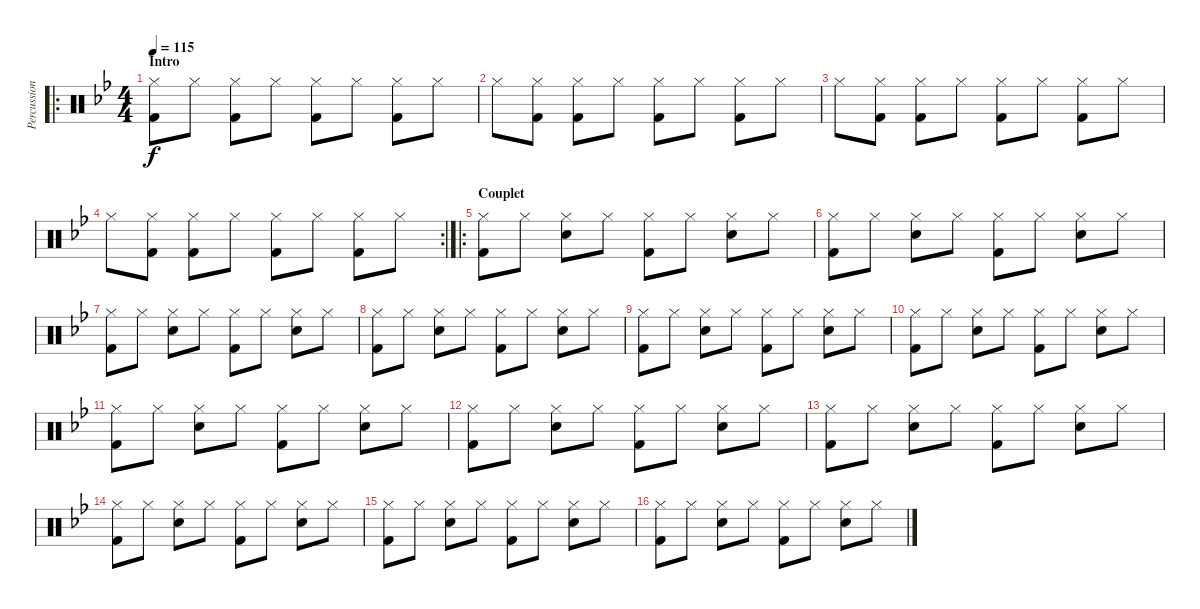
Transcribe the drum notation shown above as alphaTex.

\track ("Percussions" "Percussion") {instrument percussion}
\staff {score}
\articulation defaults
\ro
\ts (4 4)
\section ("" "Intro")
\tempo 115
\clef neutral
\ks bb
("Hi-Hat (closed)" "Kick (hit) 2").8{dy f} "Hi-Hat (closed)".8 ("Hi-Hat (closed)" "Kick (hit) 2").8 "Hi-Hat (closed)".8 ("Hi-Hat (closed)" "Kick (hit) 2").8 "Hi-Hat (closed)".8 ("Hi-Hat (closed)" "Kick (hit) 2").8 "Hi-Hat (closed)".8 |
"Hi-Hat (closed)".8 ("Hi-Hat (closed)" "Kick (hit) 2").8 ("Hi-Hat (closed)" "Kick (hit) 2").8 "Hi-Hat (closed)".8 ("Hi-Hat (closed)" "Kick (hit) 2").8 "Hi-Hat (closed)".8 ("Hi-Hat (closed)" "Kick (hit) 2").8 "Hi-Hat (closed)".8 |
"Hi-Hat (closed)".8 ("Hi-Hat (closed)" "Kick (hit) 2").8 ("Hi-Hat (closed)" "Kick (hit) 2").8 "Hi-Hat (closed)".8 ("Hi-Hat (closed)" "Kick (hit) 2").8 "Hi-Hat (closed)".8 ("Hi-Hat (closed)" "Kick (hit) 2").8 "Hi-Hat (closed)".8 |
\rc 2 "Hi-Hat (closed)".8
("Hi-Hat (closed)" "Kick (hit) 2").8 ("Hi-Hat (closed)" "Kick (hit) 2").8 "Hi-Hat (closed)".8 ("Hi-Hat (closed)" "Kick (hit) 2").8 "Hi-Hat (closed)".8 ("Hi-Hat (closed)" "Kick (hit) 2").8 "Hi-Hat (closed)".8 |
\ro
\section ("" "Couplet")
("Hi-Hat (closed)" "Kick (hit) 2").8 "Hi-Hat (closed)".8 ("Hi-Hat (closed)" "Electric Snare (hit)").8 "Hi-Hat (closed)".8 ("Hi-Hat (closed)" "Kick (hit) 2").8 "Hi-Hat (closed)".8 ("Hi-Hat (closed)" "Electric Snare (hit)").8 "Hi-Hat (closed)".8 |
("Hi-Hat (closed)" "Kick (hit) 2").8 "Hi-Hat (closed)".8 ("Hi-Hat (closed)" "Electric Snare (hit)").8 "Hi-Hat (closed)".8 ("Hi-Hat (closed)" "Kick (hit) 2").8 "Hi-Hat (closed)".8 ("Hi-Hat (closed)" "Electric Snare (hit)").8 "Hi-Hat (closed)".8 |
("Hi-Hat (closed)" "Kick (hit) 2").8 "Hi-Hat (closed)".8 ("Hi-Hat (closed)" "Electric Snare (hit)").8 "Hi-Hat (closed)".8 ("Hi-Hat (closed)" "Kick (hit) 2").8 "Hi-Hat (closed)".8 ("Hi-Hat (closed)" "Electric Snare (hit)").8 "Hi-Hat (closed)".8 |
("Hi-Hat (closed)" "Kick (hit) 2").8 "Hi-Hat (closed)".8 ("Hi-Hat (closed)" "Electric Snare (hit)").8 "Hi-Hat (closed)".8 ("Hi-Hat (closed)" "Kick (hit) 2").8 "Hi-Hat (closed)".8 ("Hi-Hat (closed)" "Electric Snare (hit)").8 "Hi-Hat (closed)".8 |
("Hi-Hat (closed)" "Kick (hit) 2").8 "Hi-Hat (closed)".8 ("Hi-Hat (closed)" "Electric Snare (hit)").8 "Hi-Hat (closed)".8 ("Hi-Hat (closed)" "Kick (hit) 2").8 "Hi-Hat (closed)".8 ("Hi-Hat (closed)" "Electric Snare (hit)").8 "Hi-Hat (closed)".8 |
("Hi-Hat (closed)" "Kick (hit) 2").8 "Hi-Hat (closed)".8 ("Hi-Hat (closed)" "Electric Snare (hit)").8 "Hi-Hat (closed)".8 ("Hi-Hat (closed)" "Kick (hit) 2").8 "Hi-Hat (closed)".8 ("Hi-Hat (closed)" "Electric Snare (hit)").8 "Hi-Hat (closed)".8 |
("Hi-Hat (closed)" "Kick (hit) 2").8 "Hi-Hat (closed)".8 ("Hi-Hat (closed)" "Electric Snare (hit)").8 "Hi-Hat (closed)".8 ("Hi-Hat (closed)" "Kick (hit) 2").8 "Hi-Hat (closed)".8 ("Hi-Hat (closed)" "Electric Snare (hit)").8 "Hi-Hat (closed)".8 |
("Hi-Hat (closed)" "Kick (hit) 2").8 "Hi-Hat (closed)".8 ("Hi-Hat (closed)" "Electric Snare (hit)").8 "Hi-Hat (closed)".8 ("Hi-Hat (closed)" "Kick (hit) 2").8 "Hi-Hat (closed)".8 ("Hi-Hat (closed)" "Electric Snare (hit)").8 "Hi-Hat (closed)".8 |
("Hi-Hat (closed)" "Kick (hit) 2").8 "Hi-Hat (closed)".8 ("Hi-Hat (closed)" "Electric Snare (hit)").8 "Hi-Hat (closed)".8 ("Hi-Hat (closed)" "Kick (hit) 2").8 "Hi-Hat (closed)".8 ("Hi-Hat (closed)" "Electric Snare (hit)").8 "Hi-Hat (closed)".8 |
("Hi-Hat (closed)" "Kick (hit) 2").8 "Hi-Hat (closed)".8 ("Hi-Hat (closed)" "Electric Snare (hit)").8 "Hi-Hat (closed)".8 ("Hi-Hat (closed)" "Kick (hit) 2").8 "Hi-Hat (closed)".8 ("Hi-Hat (closed)" "Electric Snare (hit)").8 "Hi-Hat (closed)".8 |
("Hi-Hat (closed)" "Kick (hit) 2").8 "Hi-Hat (closed)".8 ("Hi-Hat (closed)" "Electric Snare (hit)").8 "Hi-Hat (closed)".8 ("Hi-Hat (closed)" "Kick (hit) 2").8 "Hi-Hat (closed)".8 ("Hi-Hat (closed)" "Electric Snare (hit)").8 "Hi-Hat (closed)".8 |
("Hi-Hat (closed)" "Kick (hit) 2").8 "Hi-Hat (closed)".8 ("Hi-Hat (closed)" "Electric Snare (hit)").8 "Hi-Hat (closed)".8 ("Hi-Hat (closed)" "Kick (hit) 2").8 "Hi-Hat (closed)".8 ("Hi-Hat (closed)" "Electric Snare (hit)").8 "Hi-Hat (closed)".8
